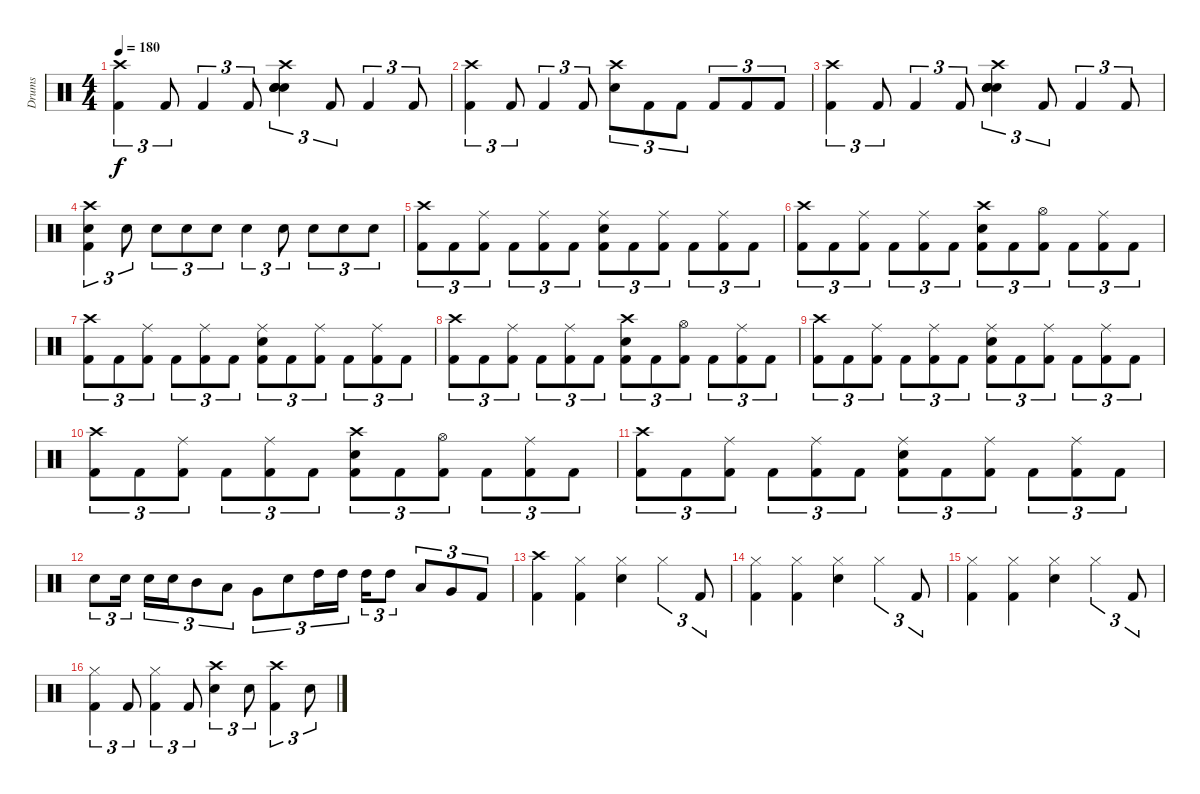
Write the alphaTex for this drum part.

\track ("Drums" "Drums") {instrument percussion}
\staff {score}
\articulation defaults
\ts (4 4)
\tempo 180
\clef neutral
\ks c
("Crash high (hit)" "Kick (hit) 2").4{tu (3 2) dy f} "Kick (hit) 2".8{tu (3 2)} "Kick (hit) 2".4{tu (3 2)} "Kick (hit) 2".8{tu (3 2)} ("Crash high (hit)" "Electric Snare (hit)" "Snare (hit) 2" "Electric Snare (hit)" "Snare (hit) 2").4{tu (3 2)} "Kick (hit) 2".8{tu (3 2)} "Kick (hit) 2".4{tu (3 2)} "Kick (hit) 2".8{tu (3 2)} |
("Crash high (hit)" "Kick (hit) 2").4{tu (3 2)} "Kick (hit) 2".8{tu (3 2)} "Kick (hit) 2".4{tu (3 2)} "Kick (hit) 2".8{tu (3 2)} ("Crash high (hit)" "Snare (hit) 2").8{tu (3 2)} "Kick (hit) 2".8{tu (3 2)} "Kick (hit) 2".8{tu (3 2)} "Kick (hit) 2".8{tu (3 2)} "Kick (hit) 2".8{tu (3 2)} "Kick (hit) 2".8{tu (3 2)} |
("Crash high (hit)" "Kick (hit) 2").4{tu (3 2)} "Kick (hit) 2".8{tu (3 2)} "Kick (hit) 2".4{tu (3 2)} "Kick (hit) 2".8{tu (3 2)} ("Crash high (hit)" "Electric Snare (hit)" "Snare (hit) 2" "Electric Snare (hit)" "Snare (hit) 2").4{tu (3 2)} "Kick (hit) 2".8{tu (3 2)} "Kick (hit) 2".4{tu (3 2)} "Kick (hit) 2".8{tu (3 2)} |
("Crash high (hit)" "Snare (hit) 2" "Kick (hit) 2").4{tu (3 2)} "Snare (hit) 2".8{tu (3 2)} "Snare (hit) 2".8{tu (3 2)} "Snare (hit) 2".8{tu (3 2)} "Snare (hit) 2".8{tu (3 2)} "Snare (hit) 2".4{tu (3 2)} "Snare (hit) 2".8{tu (3 2)} "Snare (hit) 2".8{tu (3 2)} "Snare (hit) 2".8{tu (3 2)} "Snare (hit) 2".8{tu (3 2)} |
("Crash high (hit)" "Kick (hit) 2").8{tu (3 2)} "Kick (hit) 2".8{tu (3 2)} ("Ride (middle)" "Kick (hit) 2").8{tu (3 2)} "Kick (hit) 2".8{tu (3 2)} ("Ride (middle)" "Kick (hit) 2").8{tu (3 2)} "Kick (hit) 2".8{tu (3 2)} ("Ride (middle)" "Snare (hit) 2" "Kick (hit) 2").8{tu (3 2)} "Kick (hit) 2".8{tu (3 2)} ("Ride (middle)" "Kick (hit) 2").8{tu (3 2)} "Kick (hit) 2".8{tu (3 2)} ("Ride (middle)" "Kick (hit) 2").8{tu (3 2)} "Kick (hit) 2".8{tu (3 2)} |
("Crash high (hit)" "Kick (hit) 2").8{tu (3 2)} "Kick (hit) 2".8{tu (3 2)} ("Ride (middle)" "Kick (hit) 2").8{tu (3 2)} "Kick (hit) 2".8{tu (3 2)} ("Ride (middle)" "Kick (hit) 2").8{tu (3 2)} "Kick (hit) 2".8{tu (3 2)} ("Crash high (hit)" "Snare (hit) 2" "Kick (hit) 2").8{tu (3 2)} "Kick (hit) 2".8{tu (3 2)} ("Hi-Hat (open)" "Kick (hit) 2").8{tu (3 2)} "Kick (hit) 2".8{tu (3 2)} ("Ride (middle)" "Kick (hit) 2").8{tu (3 2)} "Kick (hit) 2".8{tu (3 2)} |
("Crash high (hit)" "Kick (hit) 2").8{tu (3 2)} "Kick (hit) 2".8{tu (3 2)} ("Ride (middle)" "Kick (hit) 2").8{tu (3 2)} "Kick (hit) 2".8{tu (3 2)} ("Ride (middle)" "Kick (hit) 2").8{tu (3 2)} "Kick (hit) 2".8{tu (3 2)} ("Ride (middle)" "Snare (hit) 2" "Kick (hit) 2").8{tu (3 2)} "Kick (hit) 2".8{tu (3 2)} ("Ride (middle)" "Kick (hit) 2").8{tu (3 2)} "Kick (hit) 2".8{tu (3 2)} ("Ride (middle)" "Kick (hit) 2").8{tu (3 2)} "Kick (hit) 2".8{tu (3 2)} |
("Crash high (hit)" "Kick (hit) 2").8{tu (3 2)} "Kick (hit) 2".8{tu (3 2)} ("Ride (middle)" "Kick (hit) 2").8{tu (3 2)} "Kick (hit) 2".8{tu (3 2)} ("Ride (middle)" "Kick (hit) 2").8{tu (3 2)} "Kick (hit) 2".8{tu (3 2)} ("Crash high (hit)" "Snare (hit) 2" "Kick (hit) 2").8{tu (3 2)} "Kick (hit) 2".8{tu (3 2)} ("Hi-Hat (open)" "Kick (hit) 2").8{tu (3 2)} "Kick (hit) 2".8{tu (3 2)} ("Ride (middle)" "Kick (hit) 2").8{tu (3 2)} "Kick (hit) 2".8{tu (3 2)} |
("Crash high (hit)" "Kick (hit) 2").8{tu (3 2)} "Kick (hit) 2".8{tu (3 2)} ("Ride (middle)" "Kick (hit) 2").8{tu (3 2)} "Kick (hit) 2".8{tu (3 2)} ("Ride (middle)" "Kick (hit) 2").8{tu (3 2)} "Kick (hit) 2".8{tu (3 2)} ("Ride (middle)" "Snare (hit) 2" "Kick (hit) 2").8{tu (3 2)} "Kick (hit) 2".8{tu (3 2)} ("Ride (middle)" "Kick (hit) 2").8{tu (3 2)} "Kick (hit) 2".8{tu (3 2)} ("Ride (middle)" "Kick (hit) 2").8{tu (3 2)} "Kick (hit) 2".8{tu (3 2)} |
("Crash high (hit)" "Kick (hit) 2").8{tu (3 2)} "Kick (hit) 2".8{tu (3 2)} ("Ride (middle)" "Kick (hit) 2").8{tu (3 2)} "Kick (hit) 2".8{tu (3 2)} ("Ride (middle)" "Kick (hit) 2").8{tu (3 2)} "Kick (hit) 2".8{tu (3 2)} ("Crash high (hit)" "Snare (hit) 2" "Kick (hit) 2").8{tu (3 2)} "Kick (hit) 2".8{tu (3 2)} ("Hi-Hat (open)" "Kick (hit) 2").8{tu (3 2)} "Kick (hit) 2".8{tu (3 2)} ("Ride (middle)" "Kick (hit) 2").8{tu (3 2)} "Kick (hit) 2".8{tu (3 2)} |
("Crash high (hit)" "Kick (hit) 2").8{tu (3 2)} "Kick (hit) 2".8{tu (3 2)} ("Ride (middle)" "Kick (hit) 2").8{tu (3 2)} "Kick (hit) 2".8{tu (3 2)} ("Ride (middle)" "Kick (hit) 2").8{tu (3 2)} "Kick (hit) 2".8{tu (3 2)} ("Ride (middle)" "Snare (hit) 2" "Kick (hit) 2").8{tu (3 2)} "Kick (hit) 2".8{tu (3 2)} ("Ride (middle)" "Kick (hit) 2").8{tu (3 2)} "Kick (hit) 2".8{tu (3 2)} ("Ride (middle)" "Kick (hit) 2").8{tu (3 2)} "Kick (hit) 2".8{tu (3 2)} |
"Snare (hit) 2".8{tu (3 2)} "Snare (hit) 2".16{tu (3 2)} "Snare (hit) 2".16{tu (3 2)} "Snare (hit) 2".16{tu (3 2)} "Mid Tom (hit)".8{tu (3 2)} "Low Tom (hit)".8{tu (3 2)} "Very Low Tom (hit)".8{tu (3 2)} "Snare (hit) 2".8{tu (3 2)} "High Tom (hit)".16{tu (3 2)} "High Tom (hit)".16{tu (3 2)} "High Tom (hit)".16{tu (3 2)} "High Tom (hit)".8{tu (3 2)} "Low Tom (hit)".8{tu (3 2)} "Very Low Tom (hit)".8{tu (3 2)} "Kick (hit) 2".8{tu (3 2)} |
("Crash high (hit)" "Kick (hit) 2").4 ("Hi-Hat (closed)" "Kick (hit) 2").4 ("Hi-Hat (closed)" "Snare (hit) 2").4 "Hi-Hat (closed)".4{tu (3 2)} "Kick (hit) 2".8{tu (3 2)} |
("Hi-Hat (closed)" "Kick (hit) 2").4 ("Hi-Hat (closed)" "Kick (hit) 2").4 ("Hi-Hat (closed)" "Snare (hit) 2").4 "Hi-Hat (closed)".4{tu (3 2)} "Kick (hit) 2".8{tu (3 2)} |
("Hi-Hat (closed)" "Kick (hit) 2").4 ("Hi-Hat (closed)" "Kick (hit) 2").4 ("Hi-Hat (closed)" "Snare (hit) 2").4 "Hi-Hat (closed)".4{tu (3 2)} "Kick (hit) 2".8{tu (3 2)} |
("Hi-Hat (closed)" "Kick (hit) 2").4{tu (3 2)} "Kick (hit) 2".8{tu (3 2)} ("Hi-Hat (closed)" "Kick (hit) 2").4{tu (3 2)} "Kick (hit) 2".8{tu (3 2)} ("Crash high (hit)" "Snare (hit) 2").4{tu (3 2)} "Snare (hit) 2".8{tu (3 2)} ("Crash high (hit)" "Kick (hit) 2").4{tu (3 2)} "Snare (hit) 2".8{tu (3 2)}
